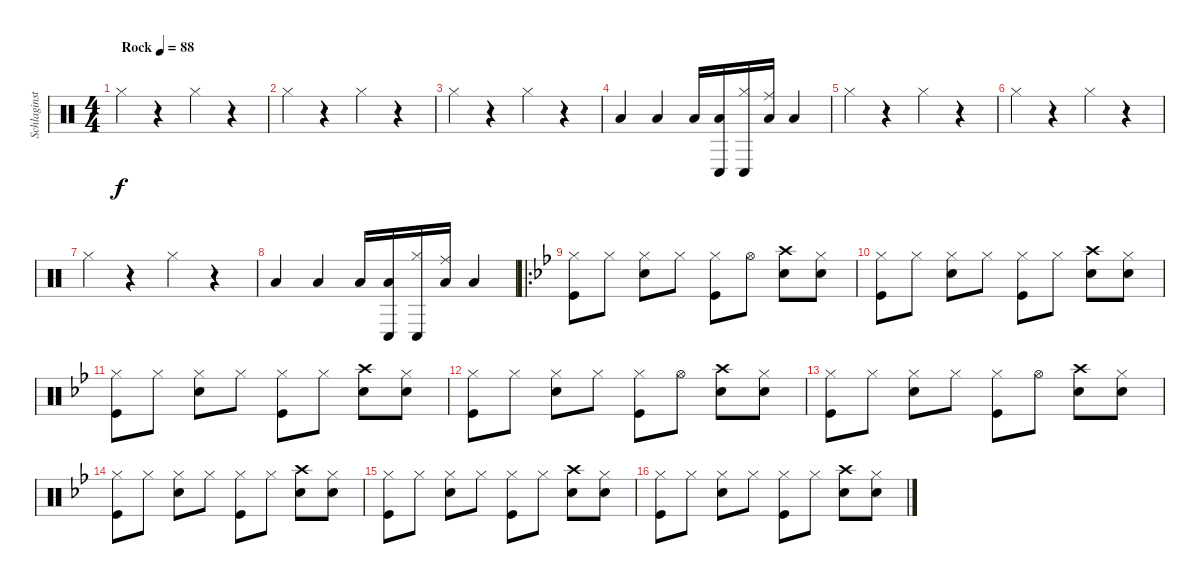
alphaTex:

\track ("Schlaginstrumente - Auswahl" "Schlaginst") {instrument percussion}
\staff {score}
\articulation defaults
\ts (4 4)
\tempo (88 "Rock")
\clef neutral
\ks c "Hi-Hat (closed)".4{dy f}
r.4 "Hi-Hat (closed)".4 r.4 |
"Hi-Hat (closed)".4 r.4 "Hi-Hat (closed)".4 r.4 |
"Hi-Hat (closed)".4 r.4 "Hi-Hat (closed)".4 r.4 |
"Low Tom (hit)".4 "Low Tom (hit)".4 "Low Tom (hit)".16 ("Conga low (hit)" "Low Tom (hit)").16 ("Conga low (hit)" "Hi-Hat (closed)").16 ("Low Tom (hit)" "Ride (middle)").16 "Low Tom (hit)".4 |
"Hi-Hat (closed)".4 r.4 "Hi-Hat (closed)".4 r.4 |
"Hi-Hat (closed)".4 r.4 "Hi-Hat (closed)".4 r.4 |
"Hi-Hat (closed)".4 r.4 "Hi-Hat (closed)".4 r.4 |
"Low Tom (hit)".4 "Low Tom (hit)".4 "Low Tom (hit)".16 ("Conga low (hit)" "Low Tom (hit)").16 ("Conga low (hit)" "Hi-Hat (closed)").16 ("Low Tom (hit)" "Ride (middle)").16 "Low Tom (hit)".4 |
\ro
\ks bb
("Hi-Hat (closed)" "Kick (hit)").8 "Hi-Hat (closed)".8 ("Hi-Hat (closed)" "Snare (hit) 2").8 "Hi-Hat (closed)".8 ("Hi-Hat (closed)" "Kick (hit)").8 "Hi-Hat (open)".8 ("Crash high (hit)" "Snare (hit) 2").8 ("Hi-Hat (closed)" "Snare (hit) 2").8 |
("Hi-Hat (closed)" "Kick (hit)").8 "Hi-Hat (closed)".8 ("Hi-Hat (closed)" "Snare (hit) 2").8 "Hi-Hat (closed)".8 ("Hi-Hat (closed)" "Kick (hit)").8 "Hi-Hat (closed)".8 ("Crash high (hit)" "Snare (hit) 2").8 ("Hi-Hat (closed)" "Snare (hit) 2").8 |
("Hi-Hat (closed)" "Kick (hit)").8 "Hi-Hat (closed)".8 ("Hi-Hat (closed)" "Snare (hit) 2").8 "Hi-Hat (closed)".8 ("Hi-Hat (closed)" "Kick (hit)").8 "Hi-Hat (closed)".8 ("Crash high (hit)" "Snare (hit) 2").8 ("Hi-Hat (closed)" "Snare (hit) 2").8 |
("Hi-Hat (closed)" "Kick (hit)").8 "Hi-Hat (closed)".8 ("Hi-Hat (closed)" "Snare (hit) 2").8 "Hi-Hat (closed)".8 ("Hi-Hat (closed)" "Kick (hit)").8 "Hi-Hat (open)".8 ("Crash high (hit)" "Snare (hit) 2").8 ("Hi-Hat (closed)" "Snare (hit) 2").8 |
("Hi-Hat (closed)" "Kick (hit)").8 "Hi-Hat (closed)".8 ("Hi-Hat (closed)" "Snare (hit) 2").8 "Hi-Hat (closed)".8 ("Hi-Hat (closed)" "Kick (hit)").8 "Hi-Hat (open)".8 ("Crash high (hit)" "Snare (hit) 2").8 ("Hi-Hat (closed)" "Snare (hit) 2").8 |
("Hi-Hat (closed)" "Kick (hit)").8 "Hi-Hat (closed)".8 ("Hi-Hat (closed)" "Snare (hit) 2").8 "Hi-Hat (closed)".8 ("Hi-Hat (closed)" "Kick (hit)").8 "Hi-Hat (closed)".8 ("Crash high (hit)" "Snare (hit) 2").8 ("Hi-Hat (closed)" "Snare (hit) 2").8 |
("Hi-Hat (closed)" "Kick (hit)").8 "Hi-Hat (closed)".8 ("Hi-Hat (closed)" "Snare (hit) 2").8 "Hi-Hat (closed)".8 ("Hi-Hat (closed)" "Kick (hit)").8 "Hi-Hat (closed)".8 ("Crash high (hit)" "Snare (hit) 2").8 ("Hi-Hat (closed)" "Snare (hit) 2").8 |
("Hi-Hat (closed)" "Kick (hit)").8 "Hi-Hat (closed)".8 ("Hi-Hat (closed)" "Snare (hit) 2").8 "Hi-Hat (closed)".8 ("Hi-Hat (closed)" "Kick (hit)").8 "Hi-Hat (closed)".8 ("Crash high (hit)" "Snare (hit) 2").8 ("Hi-Hat (closed)" "Snare (hit) 2").8
